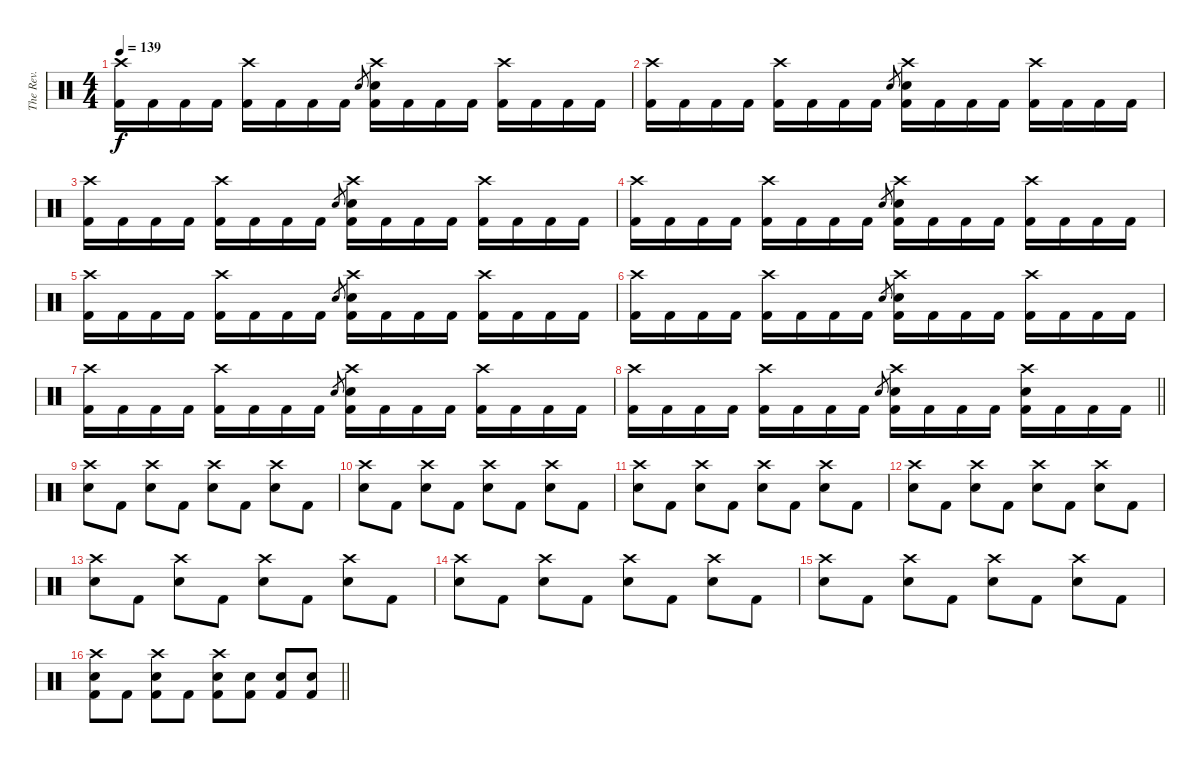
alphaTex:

\track ("The Rev." "The Rev.") {instrument percussion}
\staff {score}
\articulation defaults
\ts (4 4)
\tempo 139
\clef neutral
\ks c
("Crash high (hit)" "Kick (hit) 2").16{dy f} "Kick (hit) 2".16 "Kick (hit) 2".16 "Kick (hit) 2".16 ("Crash high (hit)" "Kick (hit) 2").16 "Kick (hit) 2".16 "Kick (hit) 2".16 "Kick (hit) 2".16 "Electric Snare (hit)".8{gr} ("Crash high (hit)" "Electric Snare (hit)" "Kick (hit) 2").16 "Kick (hit) 2".16 "Kick (hit) 2".16 "Kick (hit) 2".16 ("Crash high (hit)" "Kick (hit) 2").16 "Kick (hit) 2".16 "Kick (hit) 2".16 "Kick (hit) 2".16 |
("Crash high (hit)" "Kick (hit) 2").16 "Kick (hit) 2".16 "Kick (hit) 2".16 "Kick (hit) 2".16 ("Crash high (hit)" "Kick (hit) 2").16 "Kick (hit) 2".16 "Kick (hit) 2".16 "Kick (hit) 2".16 "Electric Snare (hit)".8{gr} ("Crash high (hit)" "Electric Snare (hit)" "Kick (hit) 2").16 "Kick (hit) 2".16 "Kick (hit) 2".16 "Kick (hit) 2".16 ("Crash high (hit)" "Kick (hit) 2").16 "Kick (hit) 2".16 "Kick (hit) 2".16 "Kick (hit) 2".16 |
("Crash high (hit)" "Kick (hit) 2").16 "Kick (hit) 2".16 "Kick (hit) 2".16 "Kick (hit) 2".16 ("Crash high (hit)" "Kick (hit) 2").16 "Kick (hit) 2".16 "Kick (hit) 2".16 "Kick (hit) 2".16 "Electric Snare (hit)".8{gr} ("Crash high (hit)" "Electric Snare (hit)" "Kick (hit) 2").16 "Kick (hit) 2".16 "Kick (hit) 2".16 "Kick (hit) 2".16 ("Crash high (hit)" "Kick (hit) 2").16 "Kick (hit) 2".16 "Kick (hit) 2".16 "Kick (hit) 2".16 |
("Crash high (hit)" "Kick (hit) 2").16 "Kick (hit) 2".16 "Kick (hit) 2".16 "Kick (hit) 2".16 ("Crash high (hit)" "Kick (hit) 2").16 "Kick (hit) 2".16 "Kick (hit) 2".16 "Kick (hit) 2".16 "Electric Snare (hit)".8{gr} ("Crash high (hit)" "Electric Snare (hit)" "Kick (hit) 2").16 "Kick (hit) 2".16 "Kick (hit) 2".16 "Kick (hit) 2".16 ("Crash high (hit)" "Kick (hit) 2").16 "Kick (hit) 2".16 "Kick (hit) 2".16 "Kick (hit) 2".16 |
("Crash high (hit)" "Kick (hit) 2").16 "Kick (hit) 2".16 "Kick (hit) 2".16 "Kick (hit) 2".16 ("Crash high (hit)" "Kick (hit) 2").16 "Kick (hit) 2".16 "Kick (hit) 2".16 "Kick (hit) 2".16 "Electric Snare (hit)".8{gr} ("Crash high (hit)" "Electric Snare (hit)" "Kick (hit) 2").16 "Kick (hit) 2".16 "Kick (hit) 2".16 "Kick (hit) 2".16 ("Crash high (hit)" "Kick (hit) 2").16 "Kick (hit) 2".16 "Kick (hit) 2".16 "Kick (hit) 2".16 |
("Crash high (hit)" "Kick (hit) 2").16 "Kick (hit) 2".16 "Kick (hit) 2".16 "Kick (hit) 2".16 ("Crash high (hit)" "Kick (hit) 2").16 "Kick (hit) 2".16 "Kick (hit) 2".16 "Kick (hit) 2".16 "Electric Snare (hit)".8{gr} ("Crash high (hit)" "Electric Snare (hit)" "Kick (hit) 2").16 "Kick (hit) 2".16 "Kick (hit) 2".16 "Kick (hit) 2".16 ("Crash high (hit)" "Kick (hit) 2").16 "Kick (hit) 2".16 "Kick (hit) 2".16 "Kick (hit) 2".16 |
("Crash high (hit)" "Kick (hit) 2").16 "Kick (hit) 2".16 "Kick (hit) 2".16 "Kick (hit) 2".16 ("Crash high (hit)" "Kick (hit) 2").16 "Kick (hit) 2".16 "Kick (hit) 2".16 "Kick (hit) 2".16 "Electric Snare (hit)".8{gr} ("Crash high (hit)" "Electric Snare (hit)" "Kick (hit) 2").16 "Kick (hit) 2".16 "Kick (hit) 2".16 "Kick (hit) 2".16 ("Crash high (hit)" "Kick (hit) 2").16 "Kick (hit) 2".16 "Kick (hit) 2".16 "Kick (hit) 2".16 |
\barLineRight lightlight
("Crash high (hit)" "Kick (hit) 2").16 "Kick (hit) 2".16 "Kick (hit) 2".16 "Kick (hit) 2".16 ("Crash high (hit)" "Kick (hit) 2").16 "Kick (hit) 2".16 "Kick (hit) 2".16 "Kick (hit) 2".16 "Electric Snare (hit)".8{gr} ("Crash high (hit)" "Electric Snare (hit)" "Kick (hit) 2").16 "Kick (hit) 2".16 "Kick (hit) 2".16 "Kick (hit) 2".16 ("Crash high (hit)" "Electric Snare (hit)" "Kick (hit) 2").16 "Kick (hit) 2".16 "Kick (hit) 2".16 "Kick (hit) 2".16 |
\section ("" " ")
("Crash high (hit)" "Electric Snare (hit)").8 "Kick (hit) 2".8 ("Crash high (hit)" "Electric Snare (hit)").8 "Kick (hit) 2".8 ("Crash high (hit)" "Electric Snare (hit)").8 "Kick (hit) 2".8 ("Crash high (hit)" "Electric Snare (hit)").8 "Kick (hit) 2".8 |
("Crash high (hit)" "Electric Snare (hit)").8 "Kick (hit) 2".8 ("Crash high (hit)" "Electric Snare (hit)").8 "Kick (hit) 2".8 ("Crash high (hit)" "Electric Snare (hit)").8 "Kick (hit) 2".8 ("Crash high (hit)" "Electric Snare (hit)").8 "Kick (hit) 2".8 |
("Crash high (hit)" "Electric Snare (hit)").8 "Kick (hit) 2".8 ("Crash high (hit)" "Electric Snare (hit)").8 "Kick (hit) 2".8 ("Crash high (hit)" "Electric Snare (hit)").8 "Kick (hit) 2".8 ("Crash high (hit)" "Electric Snare (hit)").8 "Kick (hit) 2".8 |
("Crash high (hit)" "Electric Snare (hit)").8 "Kick (hit) 2".8 ("Crash high (hit)" "Electric Snare (hit)").8 "Kick (hit) 2".8 ("Crash high (hit)" "Electric Snare (hit)").8 "Kick (hit) 2".8 ("Crash high (hit)" "Electric Snare (hit)").8 "Kick (hit) 2".8 |
("Crash high (hit)" "Electric Snare (hit)").8 "Kick (hit) 2".8 ("Crash high (hit)" "Electric Snare (hit)").8 "Kick (hit) 2".8 ("Crash high (hit)" "Electric Snare (hit)").8 "Kick (hit) 2".8 ("Crash high (hit)" "Electric Snare (hit)").8 "Kick (hit) 2".8 |
("Crash high (hit)" "Electric Snare (hit)").8 "Kick (hit) 2".8 ("Crash high (hit)" "Electric Snare (hit)").8 "Kick (hit) 2".8 ("Crash high (hit)" "Electric Snare (hit)").8 "Kick (hit) 2".8 ("Crash high (hit)" "Electric Snare (hit)").8 "Kick (hit) 2".8 |
("Crash high (hit)" "Electric Snare (hit)").8 "Kick (hit) 2".8 ("Crash high (hit)" "Electric Snare (hit)").8 "Kick (hit) 2".8 ("Crash high (hit)" "Electric Snare (hit)").8 "Kick (hit) 2".8 ("Crash high (hit)" "Electric Snare (hit)").8 "Kick (hit) 2".8 |
\barLineRight lightlight
("Crash high (hit)" "Electric Snare (hit)" "Kick (hit) 2").8 "Kick (hit) 2".8 ("Crash high (hit)" "Electric Snare (hit)" "Kick (hit) 2").8 "Kick (hit) 2".8 ("Crash high (hit)" "Electric Snare (hit)" "Kick (hit) 2").8 ("Electric Snare (hit)" "Kick (hit) 2").8 ("Electric Snare (hit)" "Kick (hit) 2").8 ("Electric Snare (hit)" "Kick (hit) 2").8
